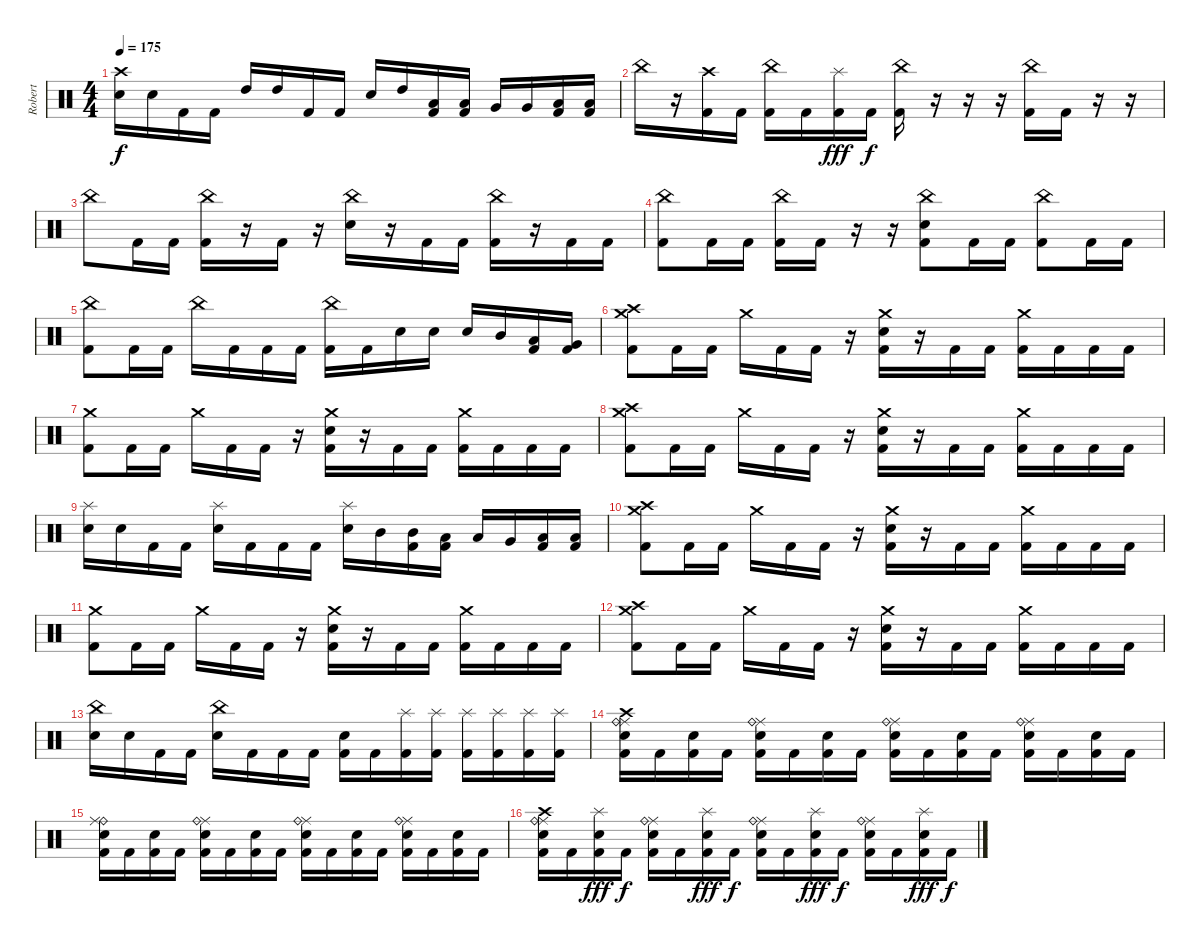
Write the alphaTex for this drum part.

\track ("Robert" "Robert") {instrument percussion}
\staff {score}
\articulation defaults
\ts (4 4)
\tempo 175
\clef neutral
\ks c
("Electric Snare (hit)" "Crash high (hit)").16{dy f} "Electric Snare (hit)".16 "Kick (hit) 2".16 "Kick (hit) 2".16 "High Tom (hit)".16 "High Tom (hit)".16 "Kick (hit) 2".16 "Kick (hit) 2".16 "Electric Snare (hit)".16 "High Tom (hit)".16 ("Low Tom (hit)" "Kick (hit) 2").16 ("Low Tom (hit)" "Kick (hit) 2").16 "Very Low Tom (hit)".16 "Very Low Tom (hit)".16 ("Low Floor Tom (hit)" "Kick (hit) 2").16 ("Low Floor Tom (hit)" "Kick (hit) 2").16 |
"China (hit)".16 r.16 ("Crash high (hit)" "Kick (hit) 2").16 "Kick (hit) 2".16 ("China (hit)" "Kick (hit) 2").16 "Kick (hit) 2".16 ("Splash (hit)" "Kick (hit) 2").16{dy fff} "Kick (hit) 2".16{dy f} ("China (hit)" "Kick (hit) 2").16 r.16 r.16 r.16 ("China (hit)" "Kick (hit) 2").16 "Kick (hit) 2".16 r.16 r.16 |
"China (hit)".8 "Kick (hit) 2".16 "Kick (hit) 2".16 ("China (hit)" "Kick (hit) 2").16 r.16 "Kick (hit) 2".16 r.16 ("China (hit)" "Electric Snare (hit)").16 r.16 "Kick (hit) 2".16 "Kick (hit) 2".16 ("China (hit)" "Kick (hit) 2").16 r.16 "Kick (hit) 2".16 "Kick (hit) 2".16 |
("China (hit)" "Kick (hit) 2").8 "Kick (hit) 2".16 "Kick (hit) 2".16 ("China (hit)" "Kick (hit) 2").16 "Kick (hit) 2".16 r.16 r.16 ("China (hit)" "Electric Snare (hit)" "Kick (hit) 2").8 "Kick (hit) 2".16 "Kick (hit) 2".16 ("China (hit)" "Kick (hit) 2").8 "Kick (hit) 2".16 "Kick (hit) 2".16 |
("China (hit)" "Kick (hit) 2").8 "Kick (hit) 2".16 "Kick (hit) 2".16 "China (hit)".16 "Kick (hit) 2".16 "Kick (hit) 2".16 "Kick (hit) 2".16 ("Kick (hit) 2" "China (hit)").16 "Kick (hit) 2".16 "Electric Snare (hit)".16 "Electric Snare (hit)".16 "Electric Snare (hit)".16 "Mid Tom (hit)".16 ("Low Tom (hit)" "Kick (hit) 2").16 ("Very Low Tom (hit)" "Kick (hit) 2").16 |
("Crash high (hit)" "Crash medium (hit)" "Kick (hit) 2").8 "Kick (hit) 2".16 "Kick (hit) 2".16 "Crash medium (hit)".16 "Kick (hit) 2".16 "Kick (hit) 2".16 r.16 ("Crash medium (hit)" "Electric Snare (hit)" "Kick (hit) 2").16 r.16 "Kick (hit) 2".16 "Kick (hit) 2".16 ("Crash medium (hit)" "Kick (hit) 2").16 "Kick (hit) 2".16 "Kick (hit) 2".16 "Kick (hit) 2".16 |
("Crash medium (hit)" "Kick (hit) 2").8 "Kick (hit) 2".16 "Kick (hit) 2".16 "Crash medium (hit)".16 "Kick (hit) 2".16 "Kick (hit) 2".16 r.16 ("Crash medium (hit)" "Electric Snare (hit)" "Kick (hit) 2").16 r.16 "Kick (hit) 2".16 "Kick (hit) 2".16 ("Crash medium (hit)" "Kick (hit) 2").16 "Kick (hit) 2".16 "Kick (hit) 2".16 "Kick (hit) 2".16 |
("Crash high (hit)" "Crash medium (hit)" "Kick (hit) 2").8 "Kick (hit) 2".16 "Kick (hit) 2".16 "Crash medium (hit)".16 "Kick (hit) 2".16 "Kick (hit) 2".16 r.16 ("Crash medium (hit)" "Electric Snare (hit)" "Kick (hit) 2").16 r.16 "Kick (hit) 2".16 "Kick (hit) 2".16 ("Crash medium (hit)" "Kick (hit) 2").16 "Kick (hit) 2".16 "Kick (hit) 2".16 "Kick (hit) 2".16 |
("Electric Snare (hit)" "Splash (hit)").16 "Electric Snare (hit)".16 "Kick (hit) 2".16 "Kick (hit) 2".16 ("Electric Snare (hit)" "Splash (hit)").16 "Kick (hit) 2".16 "Kick (hit) 2".16 "Kick (hit) 2".16 ("Electric Snare (hit)" "Splash (hit)").16 "Mid Tom (hit)".16 ("Mid Tom (hit)" "Kick (hit) 2").16 ("Low Tom (hit)" "Kick (hit) 2").16 "Low Tom (hit)".16 "Very Low Tom (hit)".16 ("Low Floor Tom (hit)" "Kick (hit) 2").16 ("Low Floor Tom (hit)" "Kick (hit) 2").16 |
("Crash high (hit)" "Crash medium (hit)" "Kick (hit) 2").8 "Kick (hit) 2".16 "Kick (hit) 2".16 "Crash medium (hit)".16 "Kick (hit) 2".16 "Kick (hit) 2".16 r.16 ("Crash medium (hit)" "Electric Snare (hit)" "Kick (hit) 2").16 r.16 "Kick (hit) 2".16 "Kick (hit) 2".16 ("Crash medium (hit)" "Kick (hit) 2").16 "Kick (hit) 2".16 "Kick (hit) 2".16 "Kick (hit) 2".16 |
("Crash medium (hit)" "Kick (hit) 2").8 "Kick (hit) 2".16 "Kick (hit) 2".16 "Crash medium (hit)".16 "Kick (hit) 2".16 "Kick (hit) 2".16 r.16 ("Crash medium (hit)" "Electric Snare (hit)" "Kick (hit) 2").16 r.16 "Kick (hit) 2".16 "Kick (hit) 2".16 ("Crash medium (hit)" "Kick (hit) 2").16 "Kick (hit) 2".16 "Kick (hit) 2".16 "Kick (hit) 2".16 |
("Crash high (hit)" "Crash medium (hit)" "Kick (hit) 2").8 "Kick (hit) 2".16 "Kick (hit) 2".16 "Crash medium (hit)".16 "Kick (hit) 2".16 "Kick (hit) 2".16 r.16 ("Crash medium (hit)" "Electric Snare (hit)" "Kick (hit) 2").16 r.16 "Kick (hit) 2".16 "Kick (hit) 2".16 ("Crash medium (hit)" "Kick (hit) 2").16 "Kick (hit) 2".16 "Kick (hit) 2".16 "Kick (hit) 2".16 |
("Electric Snare (hit)" "China (hit)").16 "Electric Snare (hit)".16 "Kick (hit) 2".16 "Kick (hit) 2".16 ("Electric Snare (hit)" "China (hit)").16 "Kick (hit) 2".16 "Kick (hit) 2".16 "Kick (hit) 2".16 ("Electric Snare (hit)" "Kick (hit) 2").16 "Kick (hit) 2".16 ("Splash (hit)" "Kick (hit) 2").16 ("Splash (hit)" "Kick (hit) 2").16 ("Splash (hit)" "Kick (hit) 2").16 ("Splash (hit)" "Kick (hit) 2").16 ("Splash (hit)" "Kick (hit) 2").16 ("Splash (hit)" "Kick (hit) 2").16 |
("Crash high (hit)" "Ride (middle)" "Electric Snare (hit)" "Ride (bell)" "Kick (hit) 2").16 "Kick (hit) 2".16 ("Electric Snare (hit)" "Kick (hit) 2").16 "Kick (hit) 2".16 ("Ride (middle)" "Electric Snare (hit)" "Ride (bell)" "Kick (hit) 2").16 "Kick (hit) 2".16 ("Electric Snare (hit)" "Kick (hit) 2").16 "Kick (hit) 2".16 ("Ride (middle)" "Electric Snare (hit)" "Ride (bell)" "Kick (hit) 2").16 "Kick (hit) 2".16 ("Electric Snare (hit)" "Kick (hit) 2").16 "Kick (hit) 2".16 ("Ride (middle)" "Ride (bell)" "Electric Snare (hit)" "Kick (hit) 2").16 "Kick (hit) 2".16 ("Electric Snare (hit)" "Kick (hit) 2").16 "Kick (hit) 2".16 |
("Ride (bell)" "Ride (middle)" "Kick (hit) 2" "Electric Snare (hit)").16 "Kick (hit) 2".16 ("Electric Snare (hit)" "Kick (hit) 2").16 "Kick (hit) 2".16 ("Ride (middle)" "Electric Snare (hit)" "Ride (bell)" "Kick (hit) 2").16 "Kick (hit) 2".16 ("Electric Snare (hit)" "Kick (hit) 2").16 "Kick (hit) 2".16 ("Ride (middle)" "Electric Snare (hit)" "Ride (bell)" "Kick (hit) 2").16 "Kick (hit) 2".16 ("Electric Snare (hit)" "Kick (hit) 2").16 "Kick (hit) 2".16 ("Ride (middle)" "Ride (bell)" "Electric Snare (hit)" "Kick (hit) 2").16 "Kick (hit) 2".16 ("Electric Snare (hit)" "Kick (hit) 2").16 "Kick (hit) 2".16 |
("Crash high (hit)" "Ride (middle)" "Electric Snare (hit)" "Ride (bell)" "Kick (hit) 2").16 "Kick (hit) 2".16 ("Splash (hit)" "Electric Snare (hit)" "Kick (hit) 2").16{dy fff} "Kick (hit) 2".16{dy f} ("Ride (middle)" "Electric Snare (hit)" "Ride (bell)" "Kick (hit) 2").16 "Kick (hit) 2".16 ("Splash (hit)" "Electric Snare (hit)" "Kick (hit) 2").16{dy fff} "Kick (hit) 2".16{dy f} ("Ride (middle)" "Electric Snare (hit)" "Ride (bell)" "Kick (hit) 2").16 "Kick (hit) 2".16 ("Splash (hit)" "Electric Snare (hit)" "Kick (hit) 2").16{dy fff} "Kick (hit) 2".16{dy f} ("Ride (middle)" "Ride (bell)" "Electric Snare (hit)" "Kick (hit) 2").16 "Kick (hit) 2".16 ("Splash (hit)" "Electric Snare (hit)" "Kick (hit) 2").16{dy fff} "Kick (hit) 2".16{dy f}
